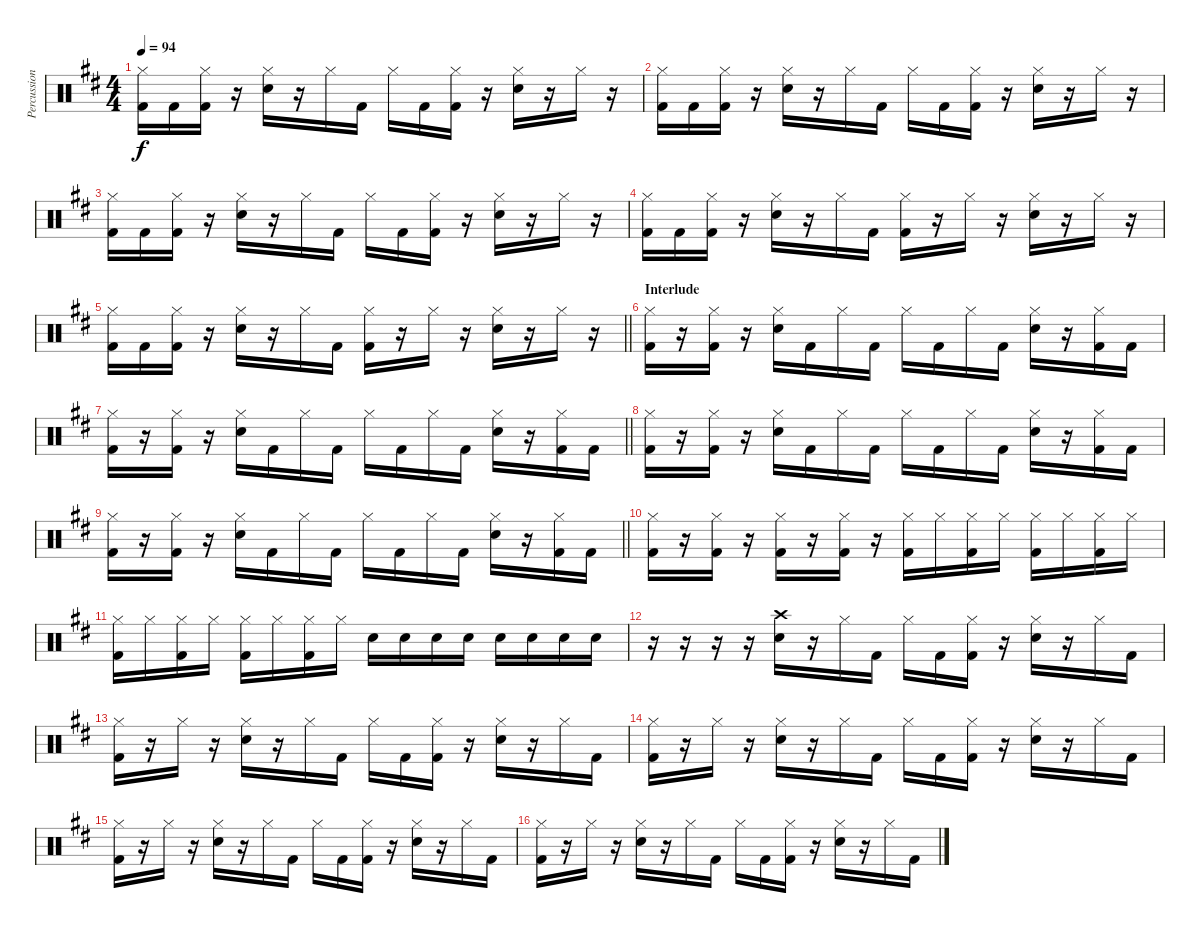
\track ("Percussion" "Percussion") {instrument percussion}
\staff {score}
\articulation defaults
\ts (4 4)
\tempo 94
\clef neutral
\ks d
("Hi-Hat (closed)" "Kick (hit) 2").16{dy f} "Kick (hit) 2".16 ("Hi-Hat (closed)" "Kick (hit) 2").16 r.16 ("Hi-Hat (closed)" "Electric Snare (hit)").16 r.16 "Hi-Hat (closed)".16 "Kick (hit) 2".16 "Hi-Hat (closed)".16 "Kick (hit) 2".16 ("Hi-Hat (closed)" "Kick (hit) 2").16 r.16 ("Hi-Hat (closed)" "Electric Snare (hit)").16 r.16 "Hi-Hat (closed)".16 r.16 |
("Hi-Hat (closed)" "Kick (hit) 2").16 "Kick (hit) 2".16 ("Hi-Hat (closed)" "Kick (hit) 2").16 r.16 ("Hi-Hat (closed)" "Electric Snare (hit)").16 r.16 "Hi-Hat (closed)".16 "Kick (hit) 2".16 "Hi-Hat (closed)".16 "Kick (hit) 2".16 ("Hi-Hat (closed)" "Kick (hit) 2").16 r.16 ("Hi-Hat (closed)" "Electric Snare (hit)").16 r.16 "Hi-Hat (closed)".16 r.16 |
("Hi-Hat (closed)" "Kick (hit) 2").16 "Kick (hit) 2".16 ("Hi-Hat (closed)" "Kick (hit) 2").16 r.16 ("Hi-Hat (closed)" "Electric Snare (hit)").16 r.16 "Hi-Hat (closed)".16 "Kick (hit) 2".16 "Hi-Hat (closed)".16 "Kick (hit) 2".16 ("Hi-Hat (closed)" "Kick (hit) 2").16 r.16 ("Hi-Hat (closed)" "Electric Snare (hit)").16 r.16 "Hi-Hat (closed)".16 r.16 |
("Hi-Hat (closed)" "Kick (hit) 2").16 "Kick (hit) 2".16 ("Hi-Hat (closed)" "Kick (hit) 2").16 r.16 ("Hi-Hat (closed)" "Electric Snare (hit)").16 r.16 "Hi-Hat (closed)".16 "Kick (hit) 2".16 ("Hi-Hat (closed)" "Kick (hit) 2").16 r.16 "Hi-Hat (closed)".16 r.16 ("Hi-Hat (closed)" "Electric Snare (hit)").16 r.16 "Hi-Hat (closed)".16 r.16 |
\barLineRight lightlight
("Hi-Hat (closed)" "Kick (hit) 2").16 "Kick (hit) 2".16 ("Hi-Hat (closed)" "Kick (hit) 2").16 r.16 ("Hi-Hat (closed)" "Electric Snare (hit)").16 r.16 "Hi-Hat (closed)".16 "Kick (hit) 2".16 ("Hi-Hat (closed)" "Kick (hit) 2").16 r.16 "Hi-Hat (closed)".16 r.16 ("Hi-Hat (closed)" "Electric Snare (hit)").16 r.16 "Hi-Hat (closed)".16 r.16 |
\section ("" "Interlude")
("Hi-Hat (closed)" "Kick (hit) 2").16 r.16 ("Hi-Hat (closed)" "Kick (hit) 2").16 r.16 ("Hi-Hat (closed)" "Electric Snare (hit)").16 "Kick (hit) 2".16 "Hi-Hat (closed)".16 "Kick (hit) 2".16 "Hi-Hat (closed)".16 "Kick (hit) 2".16 "Hi-Hat (closed)".16 "Kick (hit) 2".16 ("Hi-Hat (closed)" "Electric Snare (hit)").16 r.16 ("Hi-Hat (closed)" "Kick (hit) 2").16 "Kick (hit) 2".16 |
\barLineRight lightlight
("Hi-Hat (closed)" "Kick (hit) 2").16 r.16 ("Hi-Hat (closed)" "Kick (hit) 2").16 r.16 ("Hi-Hat (closed)" "Electric Snare (hit)").16 "Kick (hit) 2".16 "Hi-Hat (closed)".16 "Kick (hit) 2".16 "Hi-Hat (closed)".16 "Kick (hit) 2".16 "Hi-Hat (closed)".16 "Kick (hit) 2".16 ("Hi-Hat (closed)" "Electric Snare (hit)").16 r.16 ("Hi-Hat (closed)" "Kick (hit) 2").16 "Kick (hit) 2".16 |
("Hi-Hat (closed)" "Kick (hit) 2").16 r.16 ("Hi-Hat (closed)" "Kick (hit) 2").16 r.16 ("Hi-Hat (closed)" "Electric Snare (hit)").16 "Kick (hit) 2".16 "Hi-Hat (closed)".16 "Kick (hit) 2".16 "Hi-Hat (closed)".16 "Kick (hit) 2".16 "Hi-Hat (closed)".16 "Kick (hit) 2".16 ("Hi-Hat (closed)" "Electric Snare (hit)").16 r.16 ("Hi-Hat (closed)" "Kick (hit) 2").16 "Kick (hit) 2".16 |
\barLineRight lightlight
("Hi-Hat (closed)" "Kick (hit) 2").16 r.16 ("Hi-Hat (closed)" "Kick (hit) 2").16 r.16 ("Hi-Hat (closed)" "Electric Snare (hit)").16 "Kick (hit) 2".16 "Hi-Hat (closed)".16 "Kick (hit) 2".16 "Hi-Hat (closed)".16 "Kick (hit) 2".16 "Hi-Hat (closed)".16 "Kick (hit) 2".16 ("Hi-Hat (closed)" "Electric Snare (hit)").16 r.16 ("Hi-Hat (closed)" "Kick (hit) 2").16 "Kick (hit) 2".16 |
("Hi-Hat (closed)" "Kick (hit) 2").16 r.16 ("Hi-Hat (closed)" "Kick (hit) 2").16 r.16 ("Hi-Hat (closed)" "Kick (hit) 2").16 r.16 ("Hi-Hat (closed)" "Kick (hit) 2").16 r.16 ("Hi-Hat (closed)" "Kick (hit) 2").16 "Hi-Hat (closed)".16 ("Hi-Hat (closed)" "Kick (hit) 2").16 "Hi-Hat (closed)".16 ("Hi-Hat (closed)" "Kick (hit) 2").16 "Hi-Hat (closed)".16 ("Hi-Hat (closed)" "Kick (hit) 2").16 "Hi-Hat (closed)".16 |
("Hi-Hat (closed)" "Kick (hit) 2").16 "Hi-Hat (closed)".16 ("Hi-Hat (closed)" "Kick (hit) 2").16 "Hi-Hat (closed)".16 ("Hi-Hat (closed)" "Kick (hit) 2").16 "Hi-Hat (closed)".16 ("Hi-Hat (closed)" "Kick (hit) 2").16 "Hi-Hat (closed)".16 "Electric Snare (hit)".16 "Electric Snare (hit)".16 "Electric Snare (hit)".16 "Electric Snare (hit)".16 "Electric Snare (hit)".16 "Electric Snare (hit)".16 "Electric Snare (hit)".16 "Electric Snare (hit)".16 |
r.16 r.16 r.16 r.16 ("Crash high (hit)" "Electric Snare (hit)").16 r.16 "Hi-Hat (closed)".16 "Kick (hit) 2".16 "Hi-Hat (closed)".16 "Kick (hit) 2".16 ("Hi-Hat (closed)" "Kick (hit) 2").16 r.16 ("Hi-Hat (closed)" "Electric Snare (hit)").16 r.16 "Hi-Hat (closed)".16 "Kick (hit) 2".16 |
("Hi-Hat (closed)" "Kick (hit) 2").16 r.16 "Hi-Hat (closed)".16 r.16 ("Hi-Hat (closed)" "Electric Snare (hit)").16 r.16 "Hi-Hat (closed)".16 "Kick (hit) 2".16 "Hi-Hat (closed)".16 "Kick (hit) 2".16 ("Hi-Hat (closed)" "Kick (hit) 2").16 r.16 ("Hi-Hat (closed)" "Electric Snare (hit)").16 r.16 "Hi-Hat (closed)".16 "Kick (hit) 2".16 |
("Hi-Hat (closed)" "Kick (hit) 2").16 r.16 "Hi-Hat (closed)".16 r.16 ("Hi-Hat (closed)" "Electric Snare (hit)").16 r.16 "Hi-Hat (closed)".16 "Kick (hit) 2".16 "Hi-Hat (closed)".16 "Kick (hit) 2".16 ("Hi-Hat (closed)" "Kick (hit) 2").16 r.16 ("Hi-Hat (closed)" "Electric Snare (hit)").16 r.16 "Hi-Hat (closed)".16 "Kick (hit) 2".16 |
("Hi-Hat (closed)" "Kick (hit) 2").16 r.16 "Hi-Hat (closed)".16 r.16 ("Hi-Hat (closed)" "Electric Snare (hit)").16 r.16 "Hi-Hat (closed)".16 "Kick (hit) 2".16 "Hi-Hat (closed)".16 "Kick (hit) 2".16 ("Hi-Hat (closed)" "Kick (hit) 2").16 r.16 ("Hi-Hat (closed)" "Electric Snare (hit)").16 r.16 "Hi-Hat (closed)".16 "Kick (hit) 2".16 |
("Hi-Hat (closed)" "Kick (hit) 2").16 r.16 "Hi-Hat (closed)".16 r.16 ("Hi-Hat (closed)" "Electric Snare (hit)").16 r.16 "Hi-Hat (closed)".16 "Kick (hit) 2".16 "Hi-Hat (closed)".16 "Kick (hit) 2".16 ("Hi-Hat (closed)" "Kick (hit) 2").16 r.16 ("Hi-Hat (closed)" "Electric Snare (hit)").16 r.16 "Hi-Hat (closed)".16 "Kick (hit) 2".16
